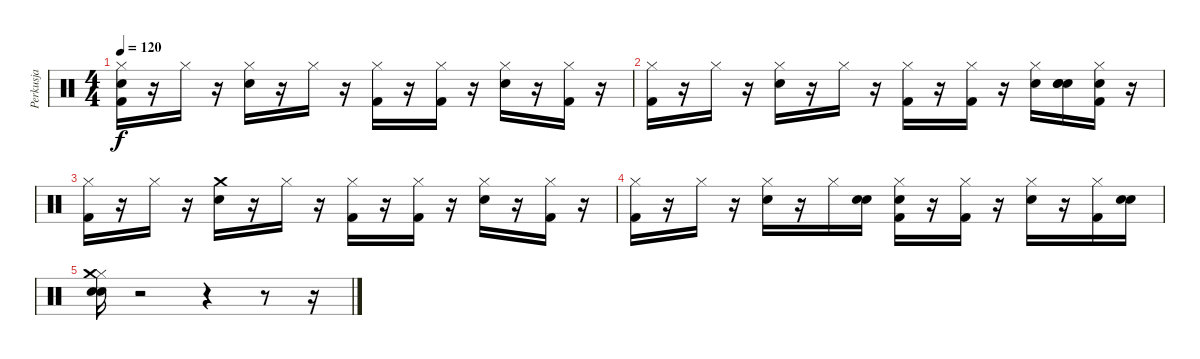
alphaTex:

\track ("Perkusja" "Perkusja") {instrument percussion}
\staff {score}
\articulation defaults
\ts (4 4)
\tempo 120
\clef neutral
\ks c
("Snare (hit)" "Hi-Hat (closed)" "Kick (hit) 2").16{dy f} r.16 "Hi-Hat (closed)".16 r.16 ("Hi-Hat (closed)" "Snare (hit) 2").16 r.16 "Hi-Hat (closed)".16 r.16 ("Hi-Hat (closed)" "Kick (hit) 2").16 r.16 ("Hi-Hat (closed)" "Kick (hit) 2").16 r.16 ("Snare (hit) 2" "Hi-Hat (closed)").16 r.16 ("Hi-Hat (closed)" "Kick (hit) 2").16 r.16 |
("Kick (hit) 2" "Hi-Hat (closed)").16 r.16 "Hi-Hat (closed)".16 r.16 ("Snare (hit) 2" "Hi-Hat (closed)").16 r.16 "Hi-Hat (closed)".16 r.16 ("Kick (hit) 2" "Hi-Hat (closed)").16 r.16 ("Kick (hit) 2" "Hi-Hat (closed)").16 r.16 ("Hi-Hat (closed)" "Snare (hit) 2").16 ("Snare (hit)" "Snare (hit) 2" "Electric Snare (hit)").16 ("Snare (hit)" "Hi-Hat (closed)" "Kick (hit) 2").16 r.16 |
("Kick (hit) 2" "Hi-Hat (closed)").16 r.16 "Hi-Hat (closed)".16 r.16 ("Crash medium (hit)" "Snare (hit) 2").16 r.16 "Hi-Hat (closed)".16 r.16 ("Kick (hit) 2" "Hi-Hat (closed)").16 r.16 ("Kick (hit) 2" "Hi-Hat (closed)").16 r.16 ("Hi-Hat (closed)" "Snare (hit) 2").16 r.16 ("Kick (hit) 2" "Hi-Hat (closed)").16 r.16 |
("Hi-Hat (closed)" "Kick (hit) 2").16 r.16 "Hi-Hat (closed)".16 r.16 ("Hi-Hat (closed)" "Snare (hit) 2").16 r.16 "Hi-Hat (closed)".16 ("Snare (hit)" "Snare (hit) 2").16 ("Snare (hit)" "Hi-Hat (closed)" "Kick (hit) 2").16 r.16 ("Kick (hit) 2" "Hi-Hat (closed)").16 r.16 ("Hi-Hat (closed)" "Snare (hit) 2").16 r.16 ("Hi-Hat (closed)" "Kick (hit) 2").16 ("Snare (hit)" "Snare (hit) 2").16 |
("Snare (hit)" "Snare (hit) 2" "Hi-Hat (closed)" "Crash medium (hit)").16 r.2 r.4 r.8 r.16
